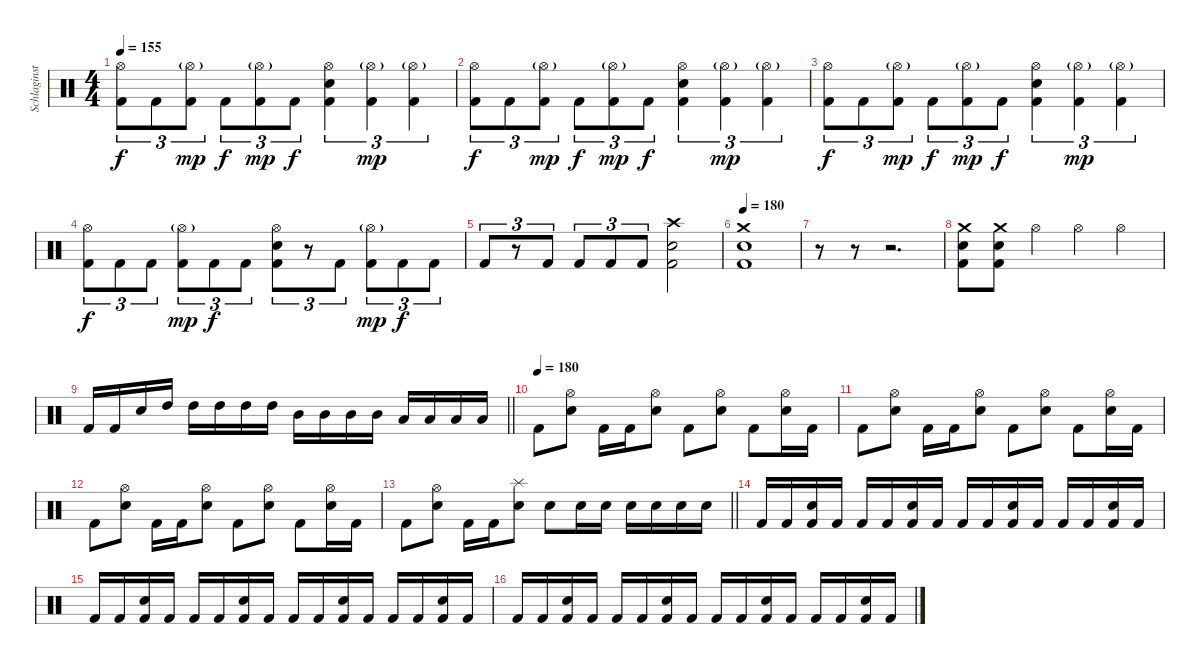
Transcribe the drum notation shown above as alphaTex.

\track ("Schlaginstrumente - Auswahl" "Schlaginst") {instrument percussion}
\staff {score}
\articulation defaults
\ts (4 4)
\tempo 155
\clef neutral
\ks c
("Hi-Hat (open)" "Kick (hit) 2").8{tu (3 2) dy f} "Kick (hit) 2".8{tu (3 2)} ("Hi-Hat (open)"{g} "Kick (hit) 2").8{tu (3 2) dy mp} "Kick (hit) 2".8{tu (3 2) dy f} ("Hi-Hat (open)"{g} "Kick (hit) 2").8{tu (3 2) dy mp} "Kick (hit) 2".8{tu (3 2) dy f} ("Hi-Hat (open)" "Snare (hit) 2" "Kick (hit) 2").4{tu (3 2)} ("Hi-Hat (open)"{g} "Kick (hit) 2").4{tu (3 2) dy mp} ("Hi-Hat (open)"{g} "Kick (hit) 2").4{tu (3 2)} |
("Hi-Hat (open)" "Kick (hit) 2").8{tu (3 2) dy f} "Kick (hit) 2".8{tu (3 2)} ("Hi-Hat (open)"{g} "Kick (hit) 2").8{tu (3 2) dy mp} "Kick (hit) 2".8{tu (3 2) dy f} ("Hi-Hat (open)"{g} "Kick (hit) 2").8{tu (3 2) dy mp} "Kick (hit) 2".8{tu (3 2) dy f} ("Hi-Hat (open)" "Snare (hit) 2" "Kick (hit) 2").4{tu (3 2)} ("Hi-Hat (open)"{g} "Kick (hit) 2").4{tu (3 2) dy mp} ("Hi-Hat (open)"{g} "Kick (hit) 2").4{tu (3 2)} |
("Hi-Hat (open)" "Kick (hit) 2").8{tu (3 2) dy f} "Kick (hit) 2".8{tu (3 2)} ("Hi-Hat (open)"{g} "Kick (hit) 2").8{tu (3 2) dy mp} "Kick (hit) 2".8{tu (3 2) dy f} ("Hi-Hat (open)"{g} "Kick (hit) 2").8{tu (3 2) dy mp} "Kick (hit) 2".8{tu (3 2) dy f} ("Hi-Hat (open)" "Snare (hit) 2" "Kick (hit) 2").4{tu (3 2)} ("Hi-Hat (open)"{g} "Kick (hit) 2").4{tu (3 2) dy mp} ("Hi-Hat (open)"{g} "Kick (hit) 2").4{tu (3 2)} |
("Hi-Hat (open)" "Kick (hit) 2").8{tu (3 2) dy f} "Kick (hit) 2".8{tu (3 2)} "Kick (hit) 2".8{tu (3 2)} ("Hi-Hat (open)"{g} "Kick (hit) 2").8{tu (3 2) dy mp} "Kick (hit) 2".8{tu (3 2) dy f} "Kick (hit) 2".8{tu (3 2)} ("Hi-Hat (open)" "Snare (hit) 2" "Kick (hit) 2").8{tu (3 2)} r.8{tu (3 2)} "Kick (hit) 2".8{tu (3 2)} ("Hi-Hat (open)"{g} "Kick (hit) 2").8{tu (3 2) dy mp} "Kick (hit) 2".8{tu (3 2) dy f} "Kick (hit) 2".8{tu (3 2)} |
"Kick (hit) 2".8{tu (3 2)} r.8{tu (3 2)} "Kick (hit) 2".8{tu (3 2)} "Kick (hit) 2".8{tu (3 2)} "Kick (hit) 2".8{tu (3 2)} "Kick (hit) 2".8{tu (3 2)} ("Crash high (hit)" "Snare (hit) 2" "Kick (hit) 2").2 |
\tempo 180
("Crash medium (hit)" "Snare (hit) 2" "Kick (hit) 2").1 |
r.8 r.8 r.2{d} |
("Crash medium (hit)" "Snare (hit) 2" "Kick (hit) 2").8 ("Crash medium (hit)" "Snare (hit) 2" "Kick (hit) 2").8 "Hi-Hat (open)".4 "Hi-Hat (open)".4 "Hi-Hat (open)".4 |
\barLineRight lightlight "Kick (hit) 2".16 "Kick (hit) 2".16 "Snare (hit) 2".16 "High Tom (hit)".16 "High Tom (hit)".16 "High Tom (hit)".16 "High Tom (hit)".16 "High Tom (hit)".16 "Mid Tom (hit)".16 "Mid Tom (hit)".16 "Mid Tom (hit)".16 "Mid Tom (hit)".16 "Low Tom (hit)".16 "Low Tom (hit)".16 "Low Tom (hit)".16 "Low Tom (hit)".16
|
\tempo (180)
"Kick (hit) 2".8 ("Hi-Hat (open)" "Snare (hit) 2").8 "Kick (hit) 2".16 "Kick (hit) 2".16 ("Hi-Hat (open)" "Snare (hit) 2").8 "Kick (hit) 2".8 ("Hi-Hat (open)" "Snare (hit) 2").8 "Kick (hit) 2".8 ("Hi-Hat (open)" "Snare (hit) 2").16 "Kick (hit) 2".16 |
"Kick (hit) 2".8 ("Hi-Hat (open)" "Snare (hit) 2").8 "Kick (hit) 2".16 "Kick (hit) 2".16 ("Hi-Hat (open)" "Snare (hit) 2").8 "Kick (hit) 2".8 ("Hi-Hat (open)" "Snare (hit) 2").8 "Kick (hit) 2".8 ("Hi-Hat (open)" "Snare (hit) 2").16 "Kick (hit) 2".16 |
"Kick (hit) 2".8 ("Hi-Hat (open)" "Snare (hit) 2").8 "Kick (hit) 2".16 "Kick (hit) 2".16 ("Hi-Hat (open)" "Snare (hit) 2").8 "Kick (hit) 2".8 ("Hi-Hat (open)" "Snare (hit) 2").8 "Kick (hit) 2".8 ("Hi-Hat (open)" "Snare (hit) 2").16 "Kick (hit) 2".16 |
\barLineRight lightlight "Kick (hit) 2".8
("Hi-Hat (open)" "Snare (hit) 2").8 "Kick (hit) 2".16 "Kick (hit) 2".16 ("Splash (hit)" "Snare (hit) 2").8 "Snare (hit) 2".8 "Snare (hit) 2".16 "Snare (hit) 2".16 "Snare (hit) 2".16 "Snare (hit) 2".16 "Snare (hit) 2".16 "Snare (hit) 2".16 |
"Kick (hit) 2".16 "Kick (hit) 2".16 ("Snare (hit) 2" "Kick (hit) 2").16 "Kick (hit) 2".16 "Kick (hit) 2".16 "Kick (hit) 2".16 ("Snare (hit) 2" "Kick (hit) 2").16 "Kick (hit) 2".16 "Kick (hit) 2".16 "Kick (hit) 2".16 ("Snare (hit) 2" "Kick (hit) 2").16 "Kick (hit) 2".16 "Kick (hit) 2".16 "Kick (hit) 2".16 ("Snare (hit) 2" "Kick (hit) 2").16 "Kick (hit) 2".16 |
"Kick (hit) 2".16 "Kick (hit) 2".16 ("Snare (hit) 2" "Kick (hit) 2").16 "Kick (hit) 2".16 "Kick (hit) 2".16 "Kick (hit) 2".16 ("Snare (hit) 2" "Kick (hit) 2").16 "Kick (hit) 2".16 "Kick (hit) 2".16 "Kick (hit) 2".16 ("Snare (hit) 2" "Kick (hit) 2").16 "Kick (hit) 2".16 "Kick (hit) 2".16 "Kick (hit) 2".16 ("Snare (hit) 2" "Kick (hit) 2").16 "Kick (hit) 2".16 |
"Kick (hit) 2".16 "Kick (hit) 2".16 ("Snare (hit) 2" "Kick (hit) 2").16 "Kick (hit) 2".16 "Kick (hit) 2".16 "Kick (hit) 2".16 ("Snare (hit) 2" "Kick (hit) 2").16 "Kick (hit) 2".16 "Kick (hit) 2".16 "Kick (hit) 2".16 ("Snare (hit) 2" "Kick (hit) 2").16 "Kick (hit) 2".16 "Kick (hit) 2".16 "Kick (hit) 2".16 ("Snare (hit) 2" "Kick (hit) 2").16 "Kick (hit) 2".16
